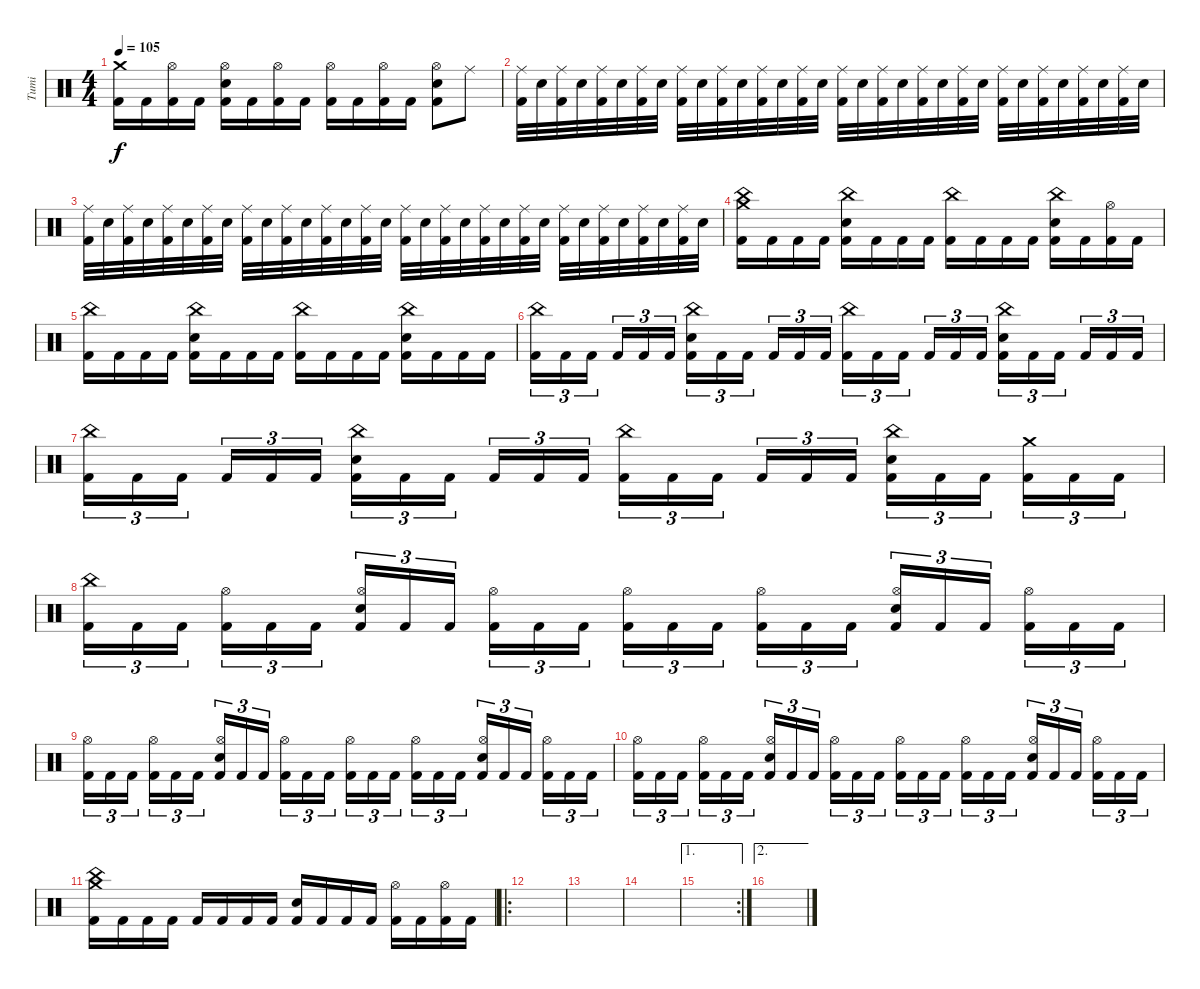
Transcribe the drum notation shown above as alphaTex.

\track ("Tumi" "Tumi") {instrument percussion}
\staff {score}
\articulation defaults
\ts (4 4)
\tempo 105
\clef neutral
\ks c
("Crash medium (hit)" "Kick (hit) 2").16{dy f} "Kick (hit) 2".16 ("Hi-Hat (open)" "Kick (hit) 2").16 "Kick (hit) 2".16 ("Hi-Hat (open)" "Electric Snare (hit)" "Kick (hit) 2").16 "Kick (hit) 2".16 ("Hi-Hat (open)" "Kick (hit) 2").16 "Kick (hit) 2".16 ("Hi-Hat (open)" "Kick (hit) 2").16 "Kick (hit) 2".16 ("Hi-Hat (open)" "Kick (hit) 2").16 "Kick (hit) 2".16 ("Hi-Hat (open)" "Electric Snare (hit)" "Kick (hit) 2").8 "Ride (middle)".8 |
("Ride (middle)" "Kick (hit) 2").32 "Electric Snare (hit)".32 ("Ride (middle)" "Kick (hit) 2").32 "Electric Snare (hit)".32 ("Ride (middle)" "Kick (hit) 2").32 "Electric Snare (hit)".32 ("Ride (middle)" "Kick (hit) 2").32 "Electric Snare (hit)".32 ("Ride (middle)" "Kick (hit) 2").32 "Electric Snare (hit)".32 ("Ride (middle)" "Kick (hit) 2").32 "Electric Snare (hit)".32 ("Ride (middle)" "Kick (hit) 2").32 "Electric Snare (hit)".32 ("Ride (middle)" "Kick (hit) 2").32 "Electric Snare (hit)".32 ("Ride (middle)" "Kick (hit) 2").32 "Electric Snare (hit)".32 ("Ride (middle)" "Kick (hit) 2").32 "Electric Snare (hit)".32 ("Ride (middle)" "Kick (hit) 2").32 "Electric Snare (hit)".32 ("Ride (middle)" "Kick (hit) 2").32 "Electric Snare (hit)".32 ("Ride (middle)" "Kick (hit) 2").32 "Electric Snare (hit)".32 ("Ride (middle)" "Kick (hit) 2").32 "Electric Snare (hit)".32 ("Ride (middle)" "Kick (hit) 2").32 "Electric Snare (hit)".32 ("Ride (middle)" "Kick (hit) 2").32 "Electric Snare (hit)".32 |
("Ride (middle)" "Kick (hit) 2").32 "Electric Snare (hit)".32 ("Ride (middle)" "Kick (hit) 2").32 "Electric Snare (hit)".32 ("Ride (middle)" "Kick (hit) 2").32 "Electric Snare (hit)".32 ("Ride (middle)" "Kick (hit) 2").32 "Electric Snare (hit)".32 ("Ride (middle)" "Kick (hit) 2").32 "Electric Snare (hit)".32 ("Ride (middle)" "Kick (hit) 2").32 "Electric Snare (hit)".32 ("Ride (middle)" "Kick (hit) 2").32 "Electric Snare (hit)".32 ("Ride (middle)" "Kick (hit) 2").32 "Electric Snare (hit)".32 ("Ride (middle)" "Kick (hit) 2").32 "Electric Snare (hit)".32 ("Ride (middle)" "Kick (hit) 2").32 "Electric Snare (hit)".32 ("Ride (middle)" "Kick (hit) 2").32 "Electric Snare (hit)".32 ("Ride (middle)" "Kick (hit) 2").32 "Electric Snare (hit)".32 ("Ride (middle)" "Kick (hit) 2").32 "Electric Snare (hit)".32 ("Ride (middle)" "Kick (hit) 2").32 "Electric Snare (hit)".32 ("Ride (middle)" "Kick (hit) 2").32 "Electric Snare (hit)".32 ("Ride (middle)" "Kick (hit) 2").32 "Electric Snare (hit)".32 |
("China (hit)" "Crash medium (hit)" "Kick (hit) 2").16 "Kick (hit) 2".16 "Kick (hit) 2".16 "Kick (hit) 2".16 ("China (hit)" "Electric Snare (hit)" "Kick (hit) 2").16 "Kick (hit) 2".16 "Kick (hit) 2".16 "Kick (hit) 2".16 ("China (hit)" "Kick (hit) 2").16 "Kick (hit) 2".16 "Kick (hit) 2".16 "Kick (hit) 2".16 ("China (hit)" "Electric Snare (hit)" "Kick (hit) 2").16 "Kick (hit) 2".16 ("Hi-Hat (open)" "Kick (hit) 2").16 "Kick (hit) 2".16 |
("China (hit)" "Kick (hit) 2").16 "Kick (hit) 2".16 "Kick (hit) 2".16 "Kick (hit) 2".16 ("China (hit)" "Electric Snare (hit)" "Kick (hit) 2").16 "Kick (hit) 2".16 "Kick (hit) 2".16 "Kick (hit) 2".16 ("China (hit)" "Kick (hit) 2").16 "Kick (hit) 2".16 "Kick (hit) 2".16 "Kick (hit) 2".16 ("China (hit)" "Electric Snare (hit)" "Kick (hit) 2").16 "Kick (hit) 2".16 "Kick (hit) 2".16 "Kick (hit) 2".16 |
("China (hit)" "Kick (hit) 2").16{tu (3 2)} "Kick (hit) 2".16{tu (3 2)} "Kick (hit) 2".16{tu (3 2) beam splitsecondary} "Kick (hit) 2".16{tu (3 2)} "Kick (hit) 2".16{tu (3 2)} "Kick (hit) 2".16{tu (3 2)} ("China (hit)" "Electric Snare (hit)" "Kick (hit) 2").16{tu (3 2)} "Kick (hit) 2".16{tu (3 2)} "Kick (hit) 2".16{tu (3 2) beam splitsecondary} "Kick (hit) 2".16{tu (3 2)} "Kick (hit) 2".16{tu (3 2)} "Kick (hit) 2".16{tu (3 2)} ("China (hit)" "Kick (hit) 2").16{tu (3 2)} "Kick (hit) 2".16{tu (3 2)} "Kick (hit) 2".16{tu (3 2) beam splitsecondary} "Kick (hit) 2".16{tu (3 2)} "Kick (hit) 2".16{tu (3 2)} "Kick (hit) 2".16{tu (3 2)} ("China (hit)" "Electric Snare (hit)" "Kick (hit) 2").16{tu (3 2)} "Kick (hit) 2".16{tu (3 2)} "Kick (hit) 2".16{tu (3 2) beam splitsecondary} "Kick (hit) 2".16{tu (3 2)} "Kick (hit) 2".16{tu (3 2)} "Kick (hit) 2".16{tu (3 2)} |
("China (hit)" "Kick (hit) 2").16{tu (3 2)} "Kick (hit) 2".16{tu (3 2)} "Kick (hit) 2".16{tu (3 2) beam splitsecondary} "Kick (hit) 2".16{tu (3 2)} "Kick (hit) 2".16{tu (3 2)} "Kick (hit) 2".16{tu (3 2)} ("China (hit)" "Electric Snare (hit)" "Kick (hit) 2").16{tu (3 2)} "Kick (hit) 2".16{tu (3 2)} "Kick (hit) 2".16{tu (3 2) beam splitsecondary} "Kick (hit) 2".16{tu (3 2)} "Kick (hit) 2".16{tu (3 2)} "Kick (hit) 2".16{tu (3 2)} ("China (hit)" "Kick (hit) 2").16{tu (3 2)} "Kick (hit) 2".16{tu (3 2)} "Kick (hit) 2".16{tu (3 2) beam splitsecondary} "Kick (hit) 2".16{tu (3 2)} "Kick (hit) 2".16{tu (3 2)} "Kick (hit) 2".16{tu (3 2)} ("China (hit)" "Electric Snare (hit)" "Kick (hit) 2").16{tu (3 2)} "Kick (hit) 2".16{tu (3 2)} "Kick (hit) 2".16{tu (3 2) beam splitsecondary} ("Crash medium (hit)" "Kick (hit) 2").16{tu (3 2)} "Kick (hit) 2".16{tu (3 2)} "Kick (hit) 2".16{tu (3 2)} |
("China (hit)" "Kick (hit) 2").16{tu (3 2)} "Kick (hit) 2".16{tu (3 2)} "Kick (hit) 2".16{tu (3 2) beam splitsecondary} ("Hi-Hat (open)" "Kick (hit) 2").16{tu (3 2)} "Kick (hit) 2".16{tu (3 2)} "Kick (hit) 2".16{tu (3 2)} ("Hi-Hat (open)" "Electric Snare (hit)" "Kick (hit) 2").16{tu (3 2)} "Kick (hit) 2".16{tu (3 2)} "Kick (hit) 2".16{tu (3 2) beam splitsecondary} ("Hi-Hat (open)" "Kick (hit) 2").16{tu (3 2)} "Kick (hit) 2".16{tu (3 2)} "Kick (hit) 2".16{tu (3 2)} ("Hi-Hat (open)" "Kick (hit) 2").16{tu (3 2)} "Kick (hit) 2".16{tu (3 2)} "Kick (hit) 2".16{tu (3 2) beam splitsecondary} ("Hi-Hat (open)" "Kick (hit) 2").16{tu (3 2)} "Kick (hit) 2".16{tu (3 2)} "Kick (hit) 2".16{tu (3 2)} ("Hi-Hat (open)" "Electric Snare (hit)" "Kick (hit) 2").16{tu (3 2)} "Kick (hit) 2".16{tu (3 2)} "Kick (hit) 2".16{tu (3 2) beam splitsecondary} ("Hi-Hat (open)" "Kick (hit) 2").16{tu (3 2)} "Kick (hit) 2".16{tu (3 2)} "Kick (hit) 2".16{tu (3 2)} |
("Hi-Hat (open)" "Kick (hit) 2").16{tu (3 2)} "Kick (hit) 2".16{tu (3 2)} "Kick (hit) 2".16{tu (3 2) beam splitsecondary} ("Hi-Hat (open)" "Kick (hit) 2").16{tu (3 2)} "Kick (hit) 2".16{tu (3 2)} "Kick (hit) 2".16{tu (3 2)} ("Hi-Hat (open)" "Electric Snare (hit)" "Kick (hit) 2").16{tu (3 2)} "Kick (hit) 2".16{tu (3 2)} "Kick (hit) 2".16{tu (3 2) beam splitsecondary} ("Hi-Hat (open)" "Kick (hit) 2").16{tu (3 2)} "Kick (hit) 2".16{tu (3 2)} "Kick (hit) 2".16{tu (3 2)} ("Hi-Hat (open)" "Kick (hit) 2").16{tu (3 2)} "Kick (hit) 2".16{tu (3 2)} "Kick (hit) 2".16{tu (3 2) beam splitsecondary} ("Hi-Hat (open)" "Kick (hit) 2").16{tu (3 2)} "Kick (hit) 2".16{tu (3 2)} "Kick (hit) 2".16{tu (3 2)} ("Hi-Hat (open)" "Electric Snare (hit)" "Kick (hit) 2").16{tu (3 2)} "Kick (hit) 2".16{tu (3 2)} "Kick (hit) 2".16{tu (3 2) beam splitsecondary} ("Hi-Hat (open)" "Kick (hit) 2").16{tu (3 2)} "Kick (hit) 2".16{tu (3 2)} "Kick (hit) 2".16{tu (3 2)} |
("Hi-Hat (open)" "Kick (hit) 2").16{tu (3 2)} "Kick (hit) 2".16{tu (3 2)} "Kick (hit) 2".16{tu (3 2) beam splitsecondary} ("Hi-Hat (open)" "Kick (hit) 2").16{tu (3 2)} "Kick (hit) 2".16{tu (3 2)} "Kick (hit) 2".16{tu (3 2)} ("Hi-Hat (open)" "Electric Snare (hit)" "Kick (hit) 2").16{tu (3 2)} "Kick (hit) 2".16{tu (3 2)} "Kick (hit) 2".16{tu (3 2) beam splitsecondary} ("Hi-Hat (open)" "Kick (hit) 2").16{tu (3 2)} "Kick (hit) 2".16{tu (3 2)} "Kick (hit) 2".16{tu (3 2)} ("Hi-Hat (open)" "Kick (hit) 2").16{tu (3 2)} "Kick (hit) 2".16{tu (3 2)} "Kick (hit) 2".16{tu (3 2) beam splitsecondary} ("Hi-Hat (open)" "Kick (hit) 2").16{tu (3 2)} "Kick (hit) 2".16{tu (3 2)} "Kick (hit) 2".16{tu (3 2)} ("Hi-Hat (open)" "Electric Snare (hit)" "Kick (hit) 2").16{tu (3 2)} "Kick (hit) 2".16{tu (3 2)} "Kick (hit) 2".16{tu (3 2) beam splitsecondary} ("Hi-Hat (open)" "Kick (hit) 2").16{tu (3 2)} "Kick (hit) 2".16{tu (3 2)} "Kick (hit) 2".16{tu (3 2)} |
("China (hit)" "Crash medium (hit)" "Kick (hit) 2").16 "Kick (hit) 2".16 "Kick (hit) 2".16 "Kick (hit) 2".16 "Kick (hit) 2".16 "Kick (hit) 2".16 "Kick (hit) 2".16 "Kick (hit) 2".16 ("Electric Snare (hit)" "Kick (hit) 2").16 "Kick (hit) 2".16 "Kick (hit) 2".16 "Kick (hit) 2".16 ("Hi-Hat (open)" "Kick (hit) 2").16 "Kick (hit) 2".16 ("Hi-Hat (open)" "Kick (hit) 2").16 "Kick (hit) 2".16 |
\ro
|
|
|
\ae 1
\rc 2
|
\ae 2
